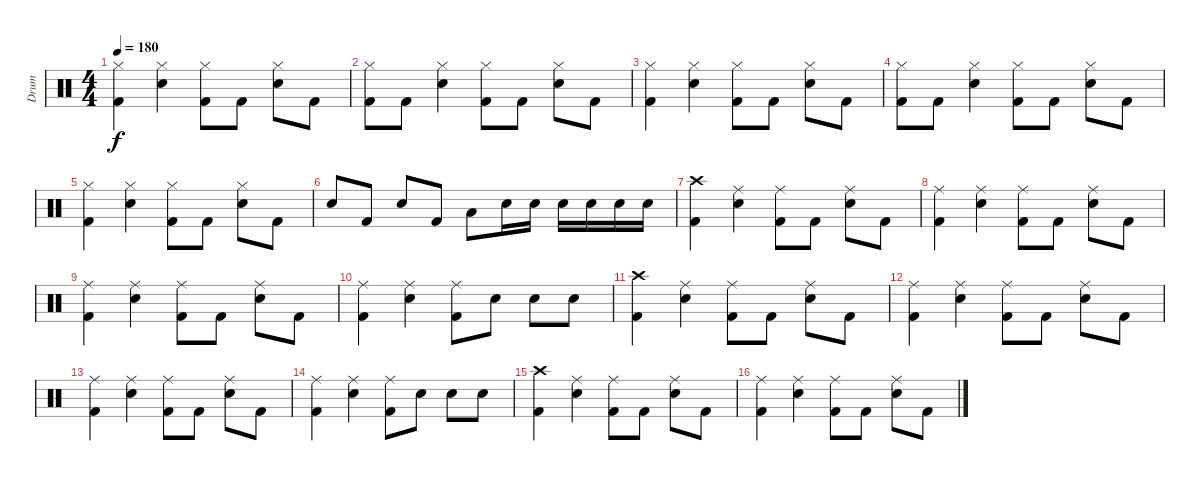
\track ("Drum" "Drum") {instrument percussion}
\staff {score}
\articulation defaults
\ts (4 4)
\tempo 180
\clef neutral
\ks c
("Hi-Hat (closed)" "Kick (hit) 2").4{dy f} ("Hi-Hat (closed)" "Electric Snare (hit)").4 ("Hi-Hat (closed)" "Kick (hit) 2").8 "Kick (hit) 2".8 ("Hi-Hat (closed)" "Electric Snare (hit)").8 "Kick (hit) 2".8 |
("Hi-Hat (closed)" "Kick (hit) 2").8 "Kick (hit) 2".8 ("Hi-Hat (closed)" "Electric Snare (hit)").4 ("Hi-Hat (closed)" "Kick (hit) 2").8 "Kick (hit) 2".8 ("Hi-Hat (closed)" "Electric Snare (hit)").8 "Kick (hit) 2".8 |
("Hi-Hat (closed)" "Kick (hit) 2").4 ("Hi-Hat (closed)" "Electric Snare (hit)").4 ("Hi-Hat (closed)" "Kick (hit) 2").8 "Kick (hit) 2".8 ("Hi-Hat (closed)" "Electric Snare (hit)").8 "Kick (hit) 2".8 |
("Hi-Hat (closed)" "Kick (hit) 2").8 "Kick (hit) 2".8 ("Hi-Hat (closed)" "Electric Snare (hit)").4 ("Hi-Hat (closed)" "Kick (hit) 2").8 "Kick (hit) 2".8 ("Hi-Hat (closed)" "Electric Snare (hit)").8 "Kick (hit) 2".8 |
("Hi-Hat (closed)" "Kick (hit) 2").4 ("Hi-Hat (closed)" "Electric Snare (hit)").4 ("Hi-Hat (closed)" "Kick (hit) 2").8 "Kick (hit) 2".8 ("Hi-Hat (closed)" "Electric Snare (hit)").8 "Kick (hit) 2".8 |
"Electric Snare (hit)".8 "Kick (hit) 2".8 "Electric Snare (hit)".8 "Kick (hit) 2".8 "Low Floor Tom (hit)".8 "Electric Snare (hit)".16 "Electric Snare (hit)".16 "Electric Snare (hit)".16 "Electric Snare (hit)".16 "Electric Snare (hit)".16 "Electric Snare (hit)".16 |
("Crash high (hit)" "Kick (hit) 2").4 ("Ride (middle)" "Electric Snare (hit)").4 ("Ride (middle)" "Kick (hit) 2").8 "Kick (hit) 2".8 ("Ride (middle)" "Electric Snare (hit)").8 "Kick (hit) 2".8 |
("Ride (middle)" "Kick (hit) 2").4 ("Ride (middle)" "Electric Snare (hit)").4 ("Ride (middle)" "Kick (hit) 2").8 "Kick (hit) 2".8 ("Ride (middle)" "Electric Snare (hit)").8 "Kick (hit) 2".8 |
("Ride (middle)" "Kick (hit) 2").4 ("Ride (middle)" "Electric Snare (hit)").4 ("Ride (middle)" "Kick (hit) 2").8 "Kick (hit) 2".8 ("Ride (middle)" "Electric Snare (hit)").8 "Kick (hit) 2".8 |
("Ride (middle)" "Kick (hit) 2").4 ("Ride (middle)" "Electric Snare (hit)").4 ("Ride (middle)" "Kick (hit) 2").8 "Electric Snare (hit)".8 "Electric Snare (hit)".8 "Electric Snare (hit)".8 |
("Crash high (hit)" "Kick (hit) 2").4 ("Ride (middle)" "Electric Snare (hit)").4 ("Ride (middle)" "Kick (hit) 2").8 "Kick (hit) 2".8 ("Ride (middle)" "Electric Snare (hit)").8 "Kick (hit) 2".8 |
("Ride (middle)" "Kick (hit) 2").4 ("Ride (middle)" "Electric Snare (hit)").4 ("Ride (middle)" "Kick (hit) 2").8 "Kick (hit) 2".8 ("Ride (middle)" "Electric Snare (hit)").8 "Kick (hit) 2".8 |
("Ride (middle)" "Kick (hit) 2").4 ("Ride (middle)" "Electric Snare (hit)").4 ("Ride (middle)" "Kick (hit) 2").8 "Kick (hit) 2".8 ("Ride (middle)" "Electric Snare (hit)").8 "Kick (hit) 2".8 |
("Ride (middle)" "Kick (hit) 2").4 ("Ride (middle)" "Electric Snare (hit)").4 ("Ride (middle)" "Kick (hit) 2").8 "Electric Snare (hit)".8 "Electric Snare (hit)".8 "Electric Snare (hit)".8 |
("Crash high (hit)" "Kick (hit) 2").4 ("Ride (middle)" "Electric Snare (hit)").4 ("Ride (middle)" "Kick (hit) 2").8 "Kick (hit) 2".8 ("Ride (middle)" "Electric Snare (hit)").8 "Kick (hit) 2".8 |
("Ride (middle)" "Kick (hit) 2").4 ("Ride (middle)" "Electric Snare (hit)").4 ("Ride (middle)" "Kick (hit) 2").8 "Kick (hit) 2".8 ("Ride (middle)" "Electric Snare (hit)").8 "Kick (hit) 2".8
